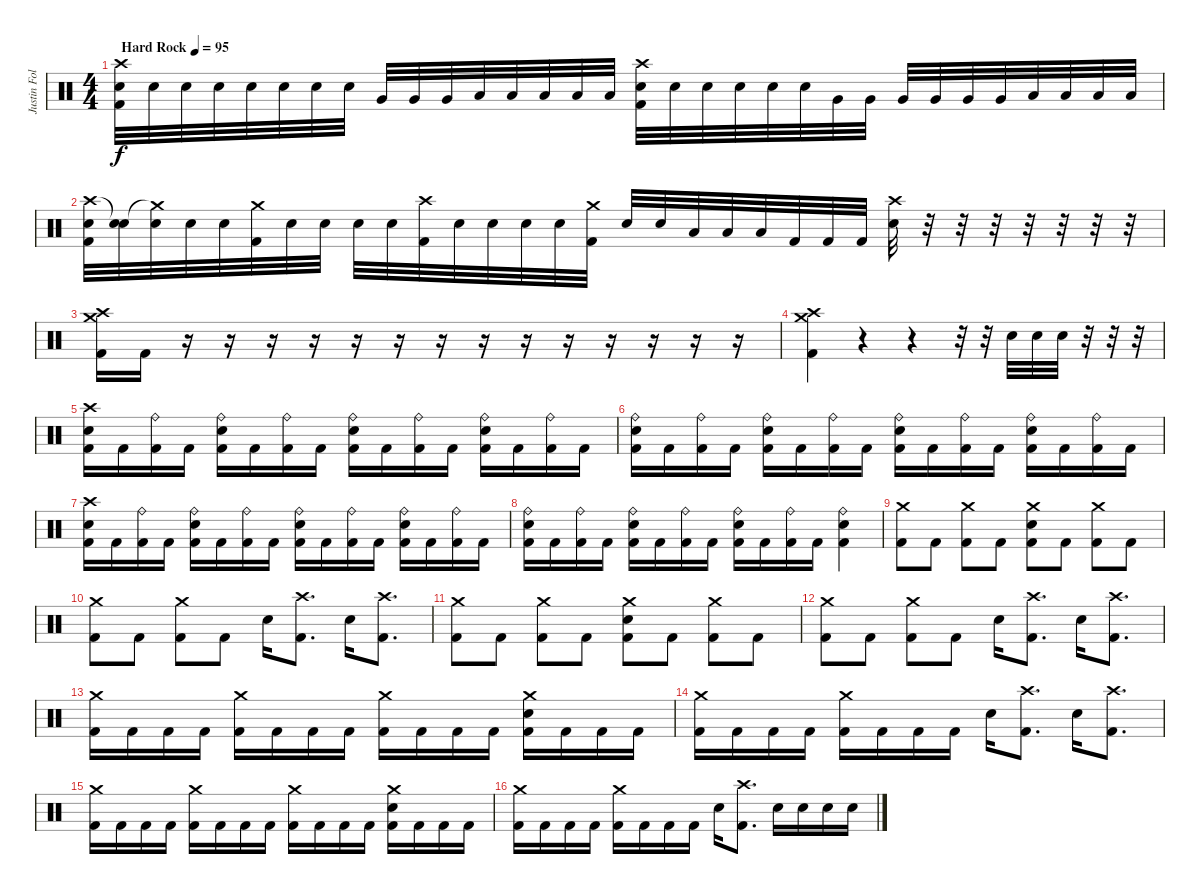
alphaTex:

\track ("Justin Foley" "Justin Fol") {instrument percussion}
\staff {score}
\articulation defaults
\ts (4 4)
\tempo (95 "Hard Rock")
\clef neutral
\ks c
("Crash high (hit)" "Snare (hit) 2" "Kick (hit) 2").32{dy f} "Snare (hit) 2".32 "Snare (hit) 2".32 "Snare (hit) 2".32 "Snare (hit) 2".32 "Snare (hit) 2".32 "Snare (hit) 2".32 "Snare (hit) 2".32 "Very Low Tom (hit)".32 "Very Low Tom (hit)".32 "Very Low Tom (hit)".32 "Low Floor Tom (hit)".32 "Low Floor Tom (hit)".32 "Low Floor Tom (hit)".32 "Low Floor Tom (hit)".32 "Low Floor Tom (hit)".32 ("Crash high (hit)" "Snare (hit) 2" "Kick (hit) 2").32 "Snare (hit) 2".32 "Snare (hit) 2".32 "Snare (hit) 2".32 "Snare (hit) 2".32 "Snare (hit) 2".32 "Very Low Tom (hit)".32 "Very Low Tom (hit)".32 "Very Low Tom (hit)".32 "Very Low Tom (hit)".32 "Very Low Tom (hit)".32 "Very Low Tom (hit)".32 "Low Floor Tom (hit)".32 "Low Floor Tom (hit)".32 "Low Floor Tom (hit)".32 "Low Floor Tom (hit)".32 |
("Crash high (hit)" "Snare (hit) 2" "Kick (hit) 2").32 ("Snare (hit)"{t} "Snare (hit) 2").32 ("Crash medium (hit)"{t} "Snare (hit) 2").32 "Snare (hit) 2".32 "Snare (hit) 2".32 ("Crash medium (hit)" "Kick (hit) 2").32 "Snare (hit) 2".32 "Snare (hit) 2".32 "Snare (hit) 2".32 "Snare (hit) 2".32 ("Crash high (hit)" "Kick (hit) 2").32 "Snare (hit) 2".32 "Snare (hit) 2".32 "Snare (hit) 2".32 "Snare (hit) 2".32 ("Crash medium (hit)" "Kick (hit) 2").32 "Snare (hit) 2".32 "Snare (hit) 2".32 "Low Floor Tom (hit)".32 "Low Floor Tom (hit)".32 "Low Floor Tom (hit)".32 "Kick (hit) 2".32 "Kick (hit) 2".32 "Kick (hit) 2".32 ("Crash high (hit)" "Snare (hit) 2").32 r.32 r.32 r.32 r.32 r.32 r.32 r.32 |
("Crash medium (hit)" "Crash high (hit)" "Kick (hit) 2").16 "Kick (hit) 2".16 r.16 r.16 r.16 r.16 r.16 r.16 r.16 r.16 r.16 r.16 r.16 r.16 r.16 r.16 |
("Crash medium (hit)" "Crash high (hit)" "Kick (hit) 2").4 r.4 r.4 r.32 r.32 "Snare (hit) 2".32 "Snare (hit) 2".32 "Snare (hit) 2".32 r.32 r.32 r.32 |
("Crash high (hit)" "Snare (hit) 2" "Kick (hit) 2").16 "Kick (hit) 2".16 ("Ride (bell)" "Kick (hit) 2").16 "Kick (hit) 2".16 ("Ride (bell)" "Snare (hit) 2" "Kick (hit) 2").16 "Kick (hit) 2".16 ("Ride (bell)" "Kick (hit) 2").16 "Kick (hit) 2".16 ("Ride (bell)" "Snare (hit) 2" "Kick (hit) 2").16 "Kick (hit) 2".16 ("Ride (bell)" "Kick (hit) 2").16 "Kick (hit) 2".16 ("Ride (bell)" "Snare (hit) 2" "Kick (hit) 2").16 "Kick (hit) 2".16 ("Ride (bell)" "Kick (hit) 2").16 "Kick (hit) 2".16 |
("Ride (bell)" "Snare (hit) 2" "Kick (hit) 2").16 "Kick (hit) 2".16 ("Ride (bell)" "Kick (hit) 2").16 "Kick (hit) 2".16 ("Ride (bell)" "Snare (hit) 2" "Kick (hit) 2").16 "Kick (hit) 2".16 ("Ride (bell)" "Kick (hit) 2").16 "Kick (hit) 2".16 ("Ride (bell)" "Snare (hit) 2" "Kick (hit) 2").16 "Kick (hit) 2".16 ("Ride (bell)" "Kick (hit) 2").16 "Kick (hit) 2".16 ("Ride (bell)" "Snare (hit) 2" "Kick (hit) 2").16 "Kick (hit) 2".16 ("Ride (bell)" "Kick (hit) 2").16 "Kick (hit) 2".16 |
("Crash high (hit)" "Snare (hit) 2" "Kick (hit) 2").16 "Kick (hit) 2".16 ("Ride (bell)" "Kick (hit) 2").16 "Kick (hit) 2".16 ("Ride (bell)" "Snare (hit) 2" "Kick (hit) 2").16 "Kick (hit) 2".16 ("Ride (bell)" "Kick (hit) 2").16 "Kick (hit) 2".16 ("Ride (bell)" "Snare (hit) 2" "Kick (hit) 2").16 "Kick (hit) 2".16 ("Ride (bell)" "Kick (hit) 2").16 "Kick (hit) 2".16 ("Ride (bell)" "Snare (hit) 2" "Kick (hit) 2").16 "Kick (hit) 2".16 ("Ride (bell)" "Kick (hit) 2").16 "Kick (hit) 2".16 |
("Ride (bell)" "Snare (hit) 2" "Kick (hit) 2").16 "Kick (hit) 2".16 ("Ride (bell)" "Kick (hit) 2").16 "Kick (hit) 2".16 ("Ride (bell)" "Snare (hit) 2" "Kick (hit) 2").16 "Kick (hit) 2".16 ("Ride (bell)" "Kick (hit) 2").16 "Kick (hit) 2".16 ("Ride (bell)" "Snare (hit) 2" "Kick (hit) 2").16 "Kick (hit) 2".16 ("Ride (bell)" "Kick (hit) 2").16 "Kick (hit) 2".16 ("Ride (bell)" "Snare (hit) 2" "Kick (hit) 2").4 |
("Crash medium (hit)" "Kick (hit) 2").8 "Kick (hit) 2".8 ("Crash medium (hit)" "Kick (hit) 2").8 "Kick (hit) 2".8 ("Crash medium (hit)" "Snare (hit) 2" "Kick (hit) 2").8 "Kick (hit) 2".8 ("Crash medium (hit)" "Kick (hit) 2").8 "Kick (hit) 2".8 |
("Crash medium (hit)" "Kick (hit) 2").8 "Kick (hit) 2".8 ("Crash medium (hit)" "Kick (hit) 2").8 "Kick (hit) 2".8 "Snare (hit) 2".16 ("Crash high (hit)" "Kick (hit) 2").8{d} "Snare (hit) 2".16 ("Crash high (hit)" "Kick (hit) 2").8{d} |
("Crash medium (hit)" "Kick (hit) 2").8 "Kick (hit) 2".8 ("Crash medium (hit)" "Kick (hit) 2").8 "Kick (hit) 2".8 ("Crash medium (hit)" "Snare (hit) 2" "Kick (hit) 2").8 "Kick (hit) 2".8 ("Crash medium (hit)" "Kick (hit) 2").8 "Kick (hit) 2".8 |
("Crash medium (hit)" "Kick (hit) 2").8 "Kick (hit) 2".8 ("Crash medium (hit)" "Kick (hit) 2").8 "Kick (hit) 2".8 "Snare (hit) 2".16 ("Crash high (hit)" "Kick (hit) 2").8{d} "Snare (hit) 2".16 ("Crash high (hit)" "Kick (hit) 2").8{d} |
("Crash medium (hit)" "Kick (hit) 2").16 "Kick (hit) 2".16 "Kick (hit) 2".16 "Kick (hit) 2".16 ("Crash medium (hit)" "Kick (hit) 2").16 "Kick (hit) 2".16 "Kick (hit) 2".16 "Kick (hit) 2".16 ("Crash medium (hit)" "Kick (hit) 2").16 "Kick (hit) 2".16 "Kick (hit) 2".16 "Kick (hit) 2".16 ("Crash medium (hit)" "Snare (hit) 2" "Kick (hit) 2").16 "Kick (hit) 2".16 "Kick (hit) 2".16 "Kick (hit) 2".16 |
("Crash medium (hit)" "Kick (hit) 2").16 "Kick (hit) 2".16 "Kick (hit) 2".16 "Kick (hit) 2".16 ("Crash medium (hit)" "Kick (hit) 2").16 "Kick (hit) 2".16 "Kick (hit) 2".16 "Kick (hit) 2".16 "Snare (hit) 2".16 ("Crash high (hit)" "Kick (hit) 2").8{d} "Snare (hit) 2".16 ("Crash high (hit)" "Kick (hit) 2").8{d} |
("Crash medium (hit)" "Kick (hit) 2").16 "Kick (hit) 2".16 "Kick (hit) 2".16 "Kick (hit) 2".16 ("Crash medium (hit)" "Kick (hit) 2").16 "Kick (hit) 2".16 "Kick (hit) 2".16 "Kick (hit) 2".16 ("Crash medium (hit)" "Kick (hit) 2").16 "Kick (hit) 2".16 "Kick (hit) 2".16 "Kick (hit) 2".16 ("Crash medium (hit)" "Snare (hit) 2" "Kick (hit) 2").16 "Kick (hit) 2".16 "Kick (hit) 2".16 "Kick (hit) 2".16 |
("Crash medium (hit)" "Kick (hit) 2").16 "Kick (hit) 2".16 "Kick (hit) 2".16 "Kick (hit) 2".16 ("Crash medium (hit)" "Kick (hit) 2").16 "Kick (hit) 2".16 "Kick (hit) 2".16 "Kick (hit) 2".16 "Snare (hit) 2".16 ("Crash high (hit)" "Kick (hit) 2").8{d} "Snare (hit) 2".16 "Snare (hit) 2".16 "Snare (hit) 2".16 "Snare (hit) 2".16
